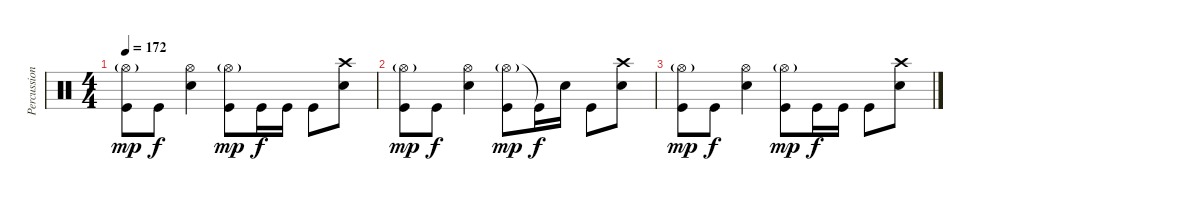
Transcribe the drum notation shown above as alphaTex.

\track ("Percussion" "Percussion") {instrument percussion}
\staff {score}
\articulation defaults
\ts (4 4)
\tempo 172
\clef neutral
\ks c
("Hi-Hat (open)"{g} "Kick (hit)").8{dy mp} "Kick (hit)".8{dy f} ("Hi-Hat (open)" "Snare (hit) 2").4 ("Hi-Hat (open)"{g} "Kick (hit)").8{dy mp} "Kick (hit)".16{dy f} "Kick (hit)".16 "Kick (hit)".8 ("Crash high (hit)" "Snare (hit) 2").8 |
("Hi-Hat (open)"{g} "Kick (hit)").8{dy mp} "Kick (hit)".8{dy f} ("Hi-Hat (open)" "Snare (hit) 2").4 ("Hi-Hat (open)"{g} "Kick (hit)").8{dy mp} "Kick (hit)"{t}.16{dy f} "Snare (hit) 2".16 "Kick (hit)".8 ("Crash high (hit)" "Snare (hit) 2").8 |
("Hi-Hat (open)"{g} "Kick (hit)").8{dy mp} "Kick (hit)".8{dy f} ("Hi-Hat (open)" "Snare (hit) 2").4 ("Hi-Hat (open)"{g} "Kick (hit)").8{dy mp} "Kick (hit)".16{dy f} "Kick (hit)".16 "Kick (hit)".8 ("Crash high (hit)" "Snare (hit) 2").8
